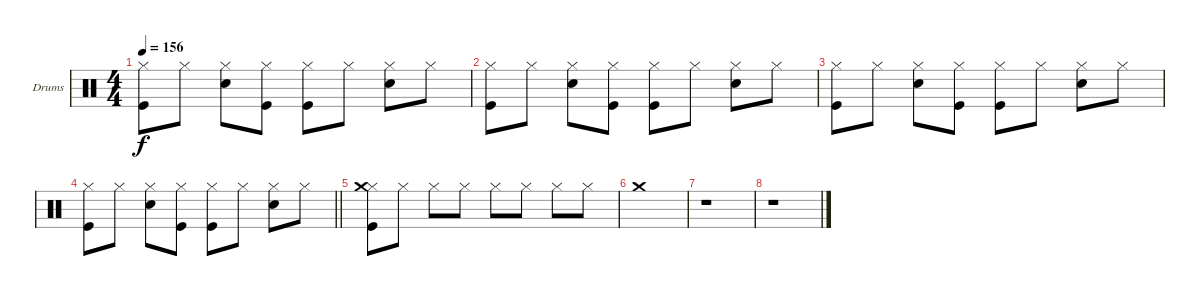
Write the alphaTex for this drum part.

\bracketExtendMode groupsimilarinstruments
\firstSystemTrackNameOrientation horizontal
\otherSystemsTrackNameOrientation horizontal
\track ("Drumkit" "Drums") {instrument percussion}
\staff {score}
\articulation defaults
\ts (4 4)
\tempo 156
\clef neutral
\ks c
("Hi-Hat (closed)" "Kick (hit)").8{dy f} "Hi-Hat (closed)".8 ("Hi-Hat (closed)" "Snare (hit) 2").8 ("Hi-Hat (closed)" "Kick (hit)").8 ("Hi-Hat (closed)" "Kick (hit)").8 "Hi-Hat (closed)".8 ("Hi-Hat (closed)" "Snare (hit) 2").8 "Hi-Hat (closed)".8 |
("Hi-Hat (closed)" "Kick (hit)").8 "Hi-Hat (closed)".8 ("Hi-Hat (closed)" "Snare (hit) 2").8 ("Hi-Hat (closed)" "Kick (hit)").8 ("Hi-Hat (closed)" "Kick (hit)").8 "Hi-Hat (closed)".8 ("Hi-Hat (closed)" "Snare (hit) 2").8 "Hi-Hat (closed)".8 |
("Hi-Hat (closed)" "Kick (hit)").8 "Hi-Hat (closed)".8 ("Hi-Hat (closed)" "Snare (hit) 2").8 ("Hi-Hat (closed)" "Kick (hit)").8 ("Hi-Hat (closed)" "Kick (hit)").8 "Hi-Hat (closed)".8 ("Hi-Hat (closed)" "Snare (hit) 2").8 "Hi-Hat (closed)".8 |
\barLineRight lightlight
("Hi-Hat (closed)" "Kick (hit)").8 "Hi-Hat (closed)".8 ("Hi-Hat (closed)" "Snare (hit) 2").8 ("Hi-Hat (closed)" "Kick (hit)").8 ("Hi-Hat (closed)" "Kick (hit)").8 "Hi-Hat (closed)".8 ("Hi-Hat (closed)" "Snare (hit) 2").8 "Hi-Hat (closed)".8 |
("Hi-Hat (closed)" "Kick (hit)" "Crash medium (hit)").8 "Hi-Hat (closed)".8 "Hi-Hat (closed)".8 "Hi-Hat (closed)".8 "Hi-Hat (closed)".8 "Hi-Hat (closed)".8 "Hi-Hat (closed)".8 "Hi-Hat (closed)".8 |
"Crash medium (hit)".1 |
r.1 |
r.1
